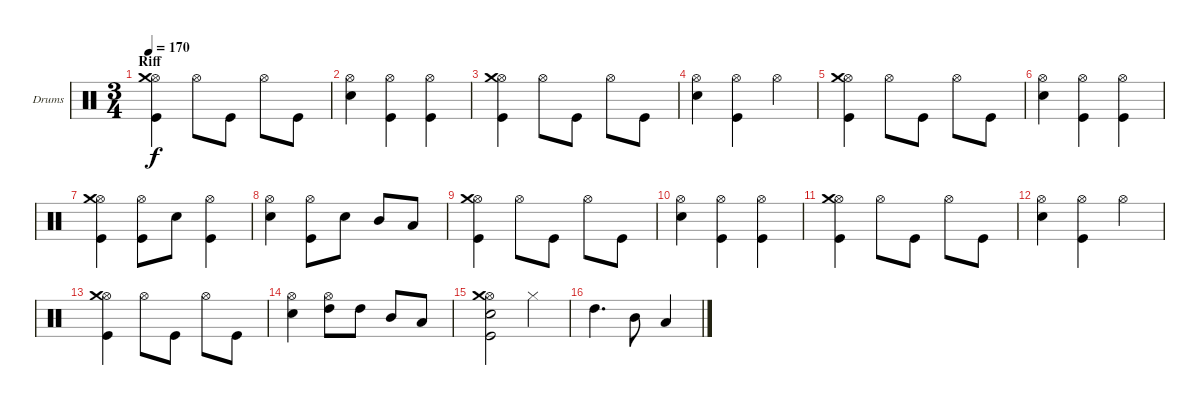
\defaultSystemsLayout 4
\bracketExtendMode groupsimilarinstruments
\firstSystemTrackNameOrientation horizontal
\otherSystemsTrackNameOrientation horizontal
\track ("Drums" "Drums") {instrument percussion}
\staff {score}
\articulation defaults
\ts (3 4)
\section ("" "Riff")
\tempo 170
\clef neutral
\ks c
("Hi-Hat (open)" "Kick (hit)" "Crash medium (hit)").4{dy f} "Hi-Hat (open)".8 "Kick (hit)".8 "Hi-Hat (open)".8 "Kick (hit)".8 |
("Hi-Hat (open)" "Snare (hit) 2").4 ("Hi-Hat (open)" "Kick (hit)").4 ("Hi-Hat (open)" "Kick (hit)").4 |
("Hi-Hat (open)" "Kick (hit)" "Crash medium (hit)").4 "Hi-Hat (open)".8 "Kick (hit)".8 "Hi-Hat (open)".8 "Kick (hit)".8 |
("Hi-Hat (open)" "Snare (hit) 2").4 ("Hi-Hat (open)" "Kick (hit)").4 "Hi-Hat (open)".4 |
("Hi-Hat (open)" "Kick (hit)" "Crash medium (hit)").4 "Hi-Hat (open)".8 "Kick (hit)".8 "Hi-Hat (open)".8 "Kick (hit)".8 |
("Hi-Hat (open)" "Snare (hit) 2").4 ("Hi-Hat (open)" "Kick (hit)").4 ("Hi-Hat (open)" "Kick (hit)").4 |
("Hi-Hat (open)" "Kick (hit)" "Crash medium (hit)").4 ("Hi-Hat (open)" "Kick (hit)").8 "Snare (hit) 2".8 ("Hi-Hat (open)" "Kick (hit)").4 |
("Hi-Hat (open)" "Snare (hit) 2").4 ("Hi-Hat (open)" "Kick (hit)").8 "Snare (hit) 2".8 "Mid Tom (hit)".8 "Low Tom (hit)".8 |
("Hi-Hat (open)" "Kick (hit)" "Crash medium (hit)").4 "Hi-Hat (open)".8 "Kick (hit)".8 "Hi-Hat (open)".8 "Kick (hit)".8 |
("Hi-Hat (open)" "Snare (hit) 2").4 ("Hi-Hat (open)" "Kick (hit)").4 ("Hi-Hat (open)" "Kick (hit)").4 |
("Hi-Hat (open)" "Kick (hit)" "Crash medium (hit)").4 "Hi-Hat (open)".8 "Kick (hit)".8 "Hi-Hat (open)".8 "Kick (hit)".8 |
("Hi-Hat (open)" "Snare (hit) 2").4 ("Hi-Hat (open)" "Kick (hit)").4 "Hi-Hat (open)".4 |
("Hi-Hat (open)" "Kick (hit)" "Crash medium (hit)").4 "Hi-Hat (open)".8 "Kick (hit)".8 "Hi-Hat (open)".8 "Kick (hit)".8 |
("Hi-Hat (open)" "Snare (hit) 2").4 ("Hi-Hat (open)" "High Tom (hit)").8 "High Tom (hit)".8 "Mid Tom (hit)".8 "Low Tom (hit)".8 |
("Hi-Hat (open)" "Kick (hit)" "Crash medium (hit)" "Snare (hit) 2").2 "Hi-Hat (closed)".4 |
"High Tom (hit)".4{d} "Mid Tom (hit)".8 "Low Tom (hit)".4
